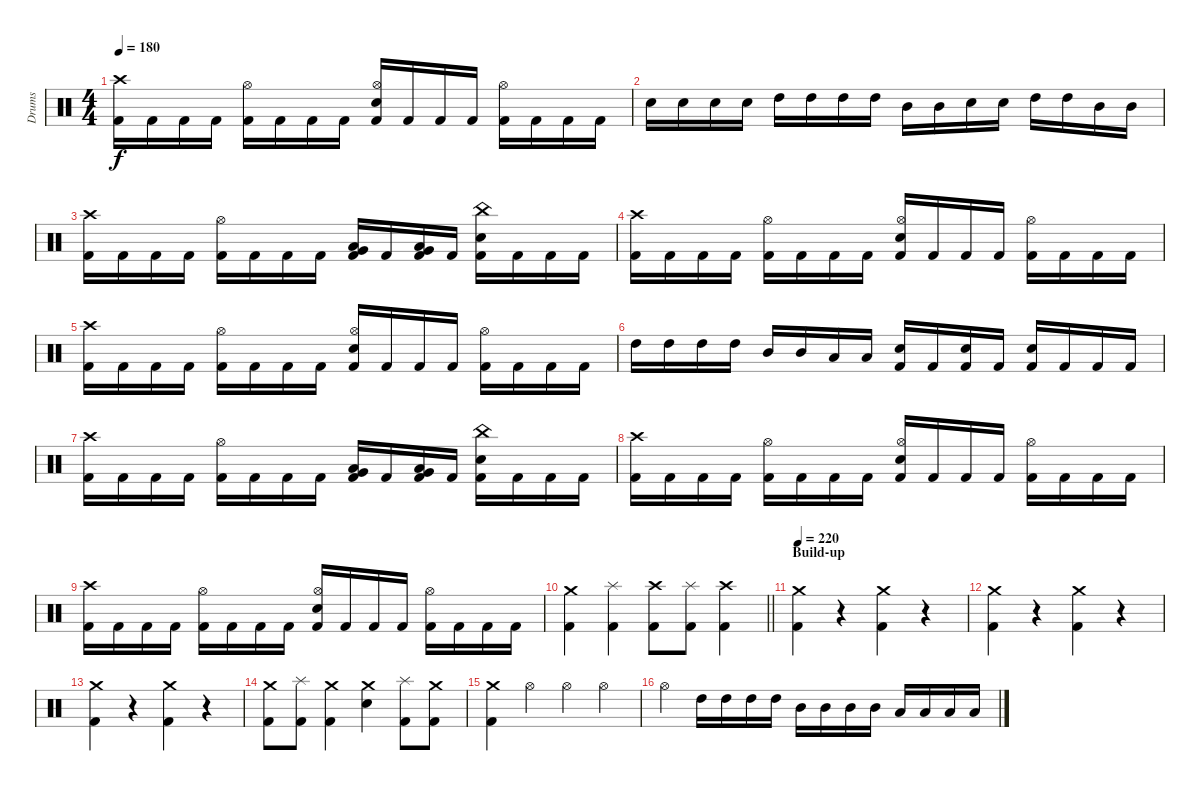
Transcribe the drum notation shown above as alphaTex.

\track ("Drums" "Drums") {instrument percussion}
\staff {score}
\articulation defaults
\ts (4 4)
\tempo 180
\clef neutral
\ks c
("Crash high (hit)" "Kick (hit) 2").16{dy f} "Kick (hit) 2".16 "Kick (hit) 2".16 "Kick (hit) 2".16 ("Hi-Hat (open)" "Kick (hit) 2").16 "Kick (hit) 2".16 "Kick (hit) 2".16 "Kick (hit) 2".16 ("Hi-Hat (open)" "Electric Snare (hit)" "Kick (hit) 2").16 "Kick (hit) 2".16 "Kick (hit) 2".16 "Kick (hit) 2".16 ("Hi-Hat (open)" "Kick (hit) 2").16 "Kick (hit) 2".16 "Kick (hit) 2".16 "Kick (hit) 2".16 |
"Electric Snare (hit)".16 "Electric Snare (hit)".16 "Electric Snare (hit)".16 "Electric Snare (hit)".16 "High Tom (hit)".16 "High Tom (hit)".16 "High Tom (hit)".16 "High Tom (hit)".16 "Mid Tom (hit)".16 "Mid Tom (hit)".16 "Electric Snare (hit)".16 "Electric Snare (hit)".16 "High Tom (hit)".16 "High Tom (hit)".16 "Mid Tom (hit)".16 "Mid Tom (hit)".16 |
("Crash high (hit)" "Kick (hit) 2").16 "Kick (hit) 2".16 "Kick (hit) 2".16 "Kick (hit) 2".16 ("Hi-Hat (open)" "Kick (hit) 2").16 "Kick (hit) 2".16 "Kick (hit) 2".16 "Kick (hit) 2".16 ("Low Tom (hit)" "Very Low Tom (hit)" "Kick (hit) 2").16 "Kick (hit) 2".16 ("Low Tom (hit)" "Very Low Tom (hit)" "Kick (hit) 2").16 "Kick (hit) 2".16 ("China (hit)" "Electric Snare (hit)" "Kick (hit) 2").16 "Kick (hit) 2".16 "Kick (hit) 2".16 "Kick (hit) 2".16 |
("Crash high (hit)" "Kick (hit) 2").16 "Kick (hit) 2".16 "Kick (hit) 2".16 "Kick (hit) 2".16 ("Hi-Hat (open)" "Kick (hit) 2").16 "Kick (hit) 2".16 "Kick (hit) 2".16 "Kick (hit) 2".16 ("Hi-Hat (open)" "Electric Snare (hit)" "Kick (hit) 2").16 "Kick (hit) 2".16 "Kick (hit) 2".16 "Kick (hit) 2".16 ("Hi-Hat (open)" "Kick (hit) 2").16 "Kick (hit) 2".16 "Kick (hit) 2".16 "Kick (hit) 2".16 |
("Crash high (hit)" "Kick (hit) 2").16 "Kick (hit) 2".16 "Kick (hit) 2".16 "Kick (hit) 2".16 ("Hi-Hat (open)" "Kick (hit) 2").16 "Kick (hit) 2".16 "Kick (hit) 2".16 "Kick (hit) 2".16 ("Hi-Hat (open)" "Electric Snare (hit)" "Kick (hit) 2").16 "Kick (hit) 2".16 "Kick (hit) 2".16 "Kick (hit) 2".16 ("Hi-Hat (open)" "Kick (hit) 2").16 "Kick (hit) 2".16 "Kick (hit) 2".16 "Kick (hit) 2".16 |
"High Tom (hit)".16 "High Tom (hit)".16 "High Tom (hit)".16 "High Tom (hit)".16 "Mid Tom (hit)".16 "Mid Tom (hit)".16 "Low Tom (hit)".16 "Low Tom (hit)".16 ("Electric Snare (hit)" "Kick (hit) 2").16 "Kick (hit) 2".16 ("Electric Snare (hit)" "Kick (hit) 2").16 "Kick (hit) 2".16 ("Electric Snare (hit)" "Kick (hit) 2").16 "Kick (hit) 2".16 "Kick (hit) 2".16 "Kick (hit) 2".16 |
("Crash high (hit)" "Kick (hit) 2").16 "Kick (hit) 2".16 "Kick (hit) 2".16 "Kick (hit) 2".16 ("Hi-Hat (open)" "Kick (hit) 2").16 "Kick (hit) 2".16 "Kick (hit) 2".16 "Kick (hit) 2".16 ("Low Tom (hit)" "Very Low Tom (hit)" "Kick (hit) 2").16 "Kick (hit) 2".16 ("Low Tom (hit)" "Very Low Tom (hit)" "Kick (hit) 2").16 "Kick (hit) 2".16 ("China (hit)" "Electric Snare (hit)" "Kick (hit) 2").16 "Kick (hit) 2".16 "Kick (hit) 2".16 "Kick (hit) 2".16 |
("Crash high (hit)" "Kick (hit) 2").16 "Kick (hit) 2".16 "Kick (hit) 2".16 "Kick (hit) 2".16 ("Hi-Hat (open)" "Kick (hit) 2").16 "Kick (hit) 2".16 "Kick (hit) 2".16 "Kick (hit) 2".16 ("Hi-Hat (open)" "Electric Snare (hit)" "Kick (hit) 2").16 "Kick (hit) 2".16 "Kick (hit) 2".16 "Kick (hit) 2".16 ("Hi-Hat (open)" "Kick (hit) 2").16 "Kick (hit) 2".16 "Kick (hit) 2".16 "Kick (hit) 2".16 |
("Crash high (hit)" "Kick (hit) 2").16 "Kick (hit) 2".16 "Kick (hit) 2".16 "Kick (hit) 2".16 ("Hi-Hat (open)" "Kick (hit) 2").16 "Kick (hit) 2".16 "Kick (hit) 2".16 "Kick (hit) 2".16 ("Hi-Hat (open)" "Electric Snare (hit)" "Kick (hit) 2").16 "Kick (hit) 2".16 "Kick (hit) 2".16 "Kick (hit) 2".16 ("Hi-Hat (open)" "Kick (hit) 2").16 "Kick (hit) 2".16 "Kick (hit) 2".16 "Kick (hit) 2".16 |
\barLineRight lightlight
("Crash medium (hit)" "Kick (hit) 2").4 ("Splash (hit)" "Kick (hit) 2").4 ("Crash high (hit)" "Kick (hit) 2").8 ("Splash (hit)" "Kick (hit) 2").8 ("Crash high (hit)" "Kick (hit) 2").4 |
\section ("" "Build-up")
\tempo 220
("Crash medium (hit)" "Kick (hit) 2").4 r.4{volume 0} ("Crash medium (hit)" "Kick (hit) 2").4{volume 16} r.4{volume 0} |
("Crash medium (hit)" "Kick (hit) 2").4{volume 16} r.4{volume 0} ("Crash medium (hit)" "Kick (hit) 2").4{volume 16} r.4 |
("Crash medium (hit)" "Kick (hit) 2").4{volume 16} r.4{volume 0} ("Crash medium (hit)" "Kick (hit) 2").4{volume 16} r.4{volume 0} |
("Crash medium (hit)" "Kick (hit) 2").8{volume 16} ("Splash (hit)" "Kick (hit) 2").8 ("Crash medium (hit)" "Kick (hit) 2").4 ("Crash medium (hit)" "Electric Snare (hit)").4 ("Splash (hit)" "Kick (hit) 2").8 ("Crash medium (hit)" "Kick (hit) 2").8 |
("Crash medium (hit)" "Kick (hit) 2").4 "Hi-Hat (open)".4 "Hi-Hat (open)".4 "Hi-Hat (open)".4 |
"Hi-Hat (open)".4 "High Tom (hit)".16 "High Tom (hit)".16 "High Tom (hit)".16 "High Tom (hit)".16 "Mid Tom (hit)".16 "Mid Tom (hit)".16 "Mid Tom (hit)".16 "Mid Tom (hit)".16 "Low Tom (hit)".16 "Low Tom (hit)".16 "Low Tom (hit)".16 "Low Tom (hit)".16
